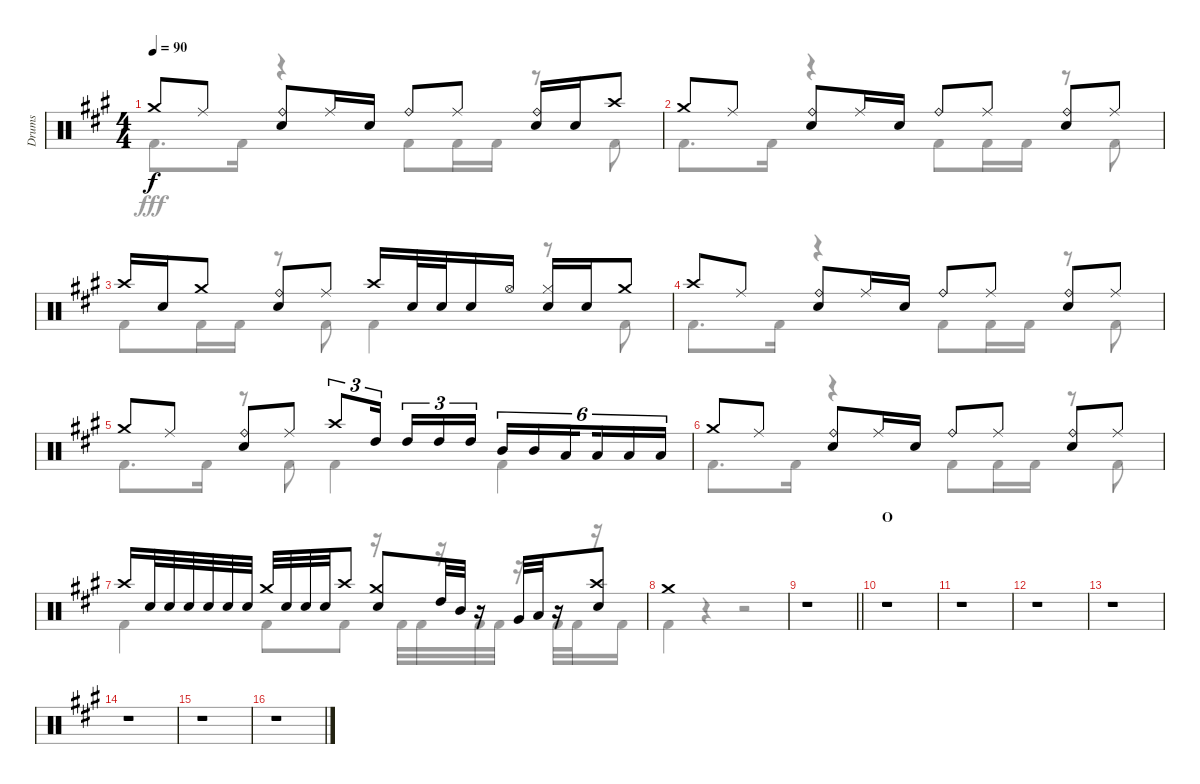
\track ("Drums" "Drums") {instrument percussion}
\staff {score}
\articulation defaults
\voice
\ts (4 4)
\tempo 90
\clef neutral
\ks a "Crash medium (hit)".8{dy f} "Ride (middle)".8
("Ride (bell)" "Snare (hit) 2").8 "Ride (middle)".16 "Snare (hit) 2".16 "Ride (bell)".8 "Ride (middle)".8 ("Ride (bell)" "Snare (hit) 2").16 "Snare (hit) 2".16 "Crash high (hit)".8 |
"Crash medium (hit)".8 "Ride (middle)".8 ("Ride (bell)" "Snare (hit) 2").8 "Ride (middle)".16 "Snare (hit) 2".16 "Ride (bell)".8 "Ride (middle)".8 ("Ride (bell)" "Snare (hit) 2").8 "Ride (middle)".8 |
"Crash high (hit)".16 "Snare (hit) 2".16 "Crash medium (hit)".8 ("Ride (bell)" "Snare (hit) 2").8 "Ride (middle)".8 "Crash high (hit)".16 "Snare (hit) 2".32 "Snare (hit) 2".32 "Snare (hit) 2".16 "Hi-Hat (open)".16 ("Hi-Hat (closed)" "Snare (hit) 2").16 "Snare (hit) 2".16 "Crash medium (hit)".8 |
"Crash high (hit)".8 "Ride (middle)".8 ("Ride (bell)" "Snare (hit) 2").8 "Ride (middle)".16 "Snare (hit) 2".16 "Ride (bell)".8 "Ride (middle)".8 ("Ride (bell)" "Snare (hit) 2").8 "Ride (middle)".8 |
"Crash medium (hit)".8 "Ride (middle)".8 ("Ride (bell)" "Snare (hit) 2").8 "Ride (middle)".8 "Crash high (hit)".8{tu (3 2)} "High Tom (hit)".16{tu (3 2) beam splitsecondary} "High Tom (hit)".16{tu (3 2)} "High Tom (hit)".16{tu (3 2)} "High Tom (hit)".16{tu (3 2)} "Mid Tom (hit)".16{tu (6 4)} "Mid Tom (hit)".16{tu (6 4)} "Low Tom (hit)".16{tu (6 4) beam splitsecondary} "Low Tom (hit)".16{tu (6 4)} "Low Tom (hit)".16{tu (6 4)} "Low Tom (hit)".16{tu (6 4)} |
"Crash medium (hit)".8 "Ride (middle)".8 ("Ride (bell)" "Snare (hit) 2").8 "Ride (middle)".16 "Snare (hit) 2".16 "Ride (bell)".8 "Ride (middle)".8 ("Ride (bell)" "Snare (hit) 2").8 "Ride (middle)".8 |
"Crash high (hit)".16 "Snare (hit) 2".32 "Snare (hit) 2".32 "Snare (hit) 2".32 "Snare (hit) 2".32 "Snare (hit) 2".32 "Snare (hit) 2".32 "Crash medium (hit)".32 "Snare (hit) 2".32 "Snare (hit) 2".32 "Snare (hit) 2".32 "Crash high (hit)".8 ("Crash medium (hit)" "Snare (hit) 2").8 "High Tom (hit)".32 "Mid Tom (hit)".32 r.16 "Very Low Tom (hit)".32 "Low Tom (hit)".32 r.16 ("Crash high (hit)" "Snare (hit) 2").8 |
"Crash medium (hit)".1 |
\barLineRight lightlight
r.1 |
\section ("" "O")
r.1 |
r.1 |
r.1 |
r.1 |
r.1 |
r.1 |
r.1
\voice
\clef neutral
\ottava regular
\simile none
\ks a "Kick (hit) 2".8{d dy fff} "Kick (hit) 2".16
r.4 "Kick (hit) 2".8 "Kick (hit) 2".16 "Kick (hit) 2".16 r.8 "Kick (hit) 2".8 |
"Kick (hit) 2".8{d} "Kick (hit) 2".16 r.4 "Kick (hit) 2".8 "Kick (hit) 2".16 "Kick (hit) 2".16 r.8 "Kick (hit) 2".8 |
"Kick (hit) 2".8 "Kick (hit) 2".16 "Kick (hit) 2".16 r.8 "Kick (hit) 2".8 "Kick (hit) 2".4 r.8 "Kick (hit) 2".8 |
"Kick (hit) 2".8{d} "Kick (hit) 2".16 r.4 "Kick (hit) 2".8 "Kick (hit) 2".16 "Kick (hit) 2".16 r.8 "Kick (hit) 2".8 |
"Kick (hit) 2".8{d} "Kick (hit) 2".16 r.8 "Kick (hit) 2".8 "Kick (hit) 2".4 "Kick (hit) 2".4 |
"Kick (hit) 2".8{d} "Kick (hit) 2".16 r.4 "Kick (hit) 2".8 "Kick (hit) 2".16 "Kick (hit) 2".16 r.8 "Kick (hit) 2".8 |
"Kick (hit) 2".4 "Kick (hit) 2".8 "Kick (hit) 2".8 r.16 "Kick (hit) 2".32 "Kick (hit) 2".32 r.16 "Kick (hit) 2".32 "Kick (hit) 2".32 r.16 "Kick (hit) 2".32 "Kick (hit) 2".32 r.16 "Kick (hit) 2".16 |
"Kick (hit) 2".4 r.4 r.2 |
\barLineRight lightlight
r.1 |
r.1 |
r.1 |
r.1 |
r.1 |
r.1 |
r.1 |
r.1
